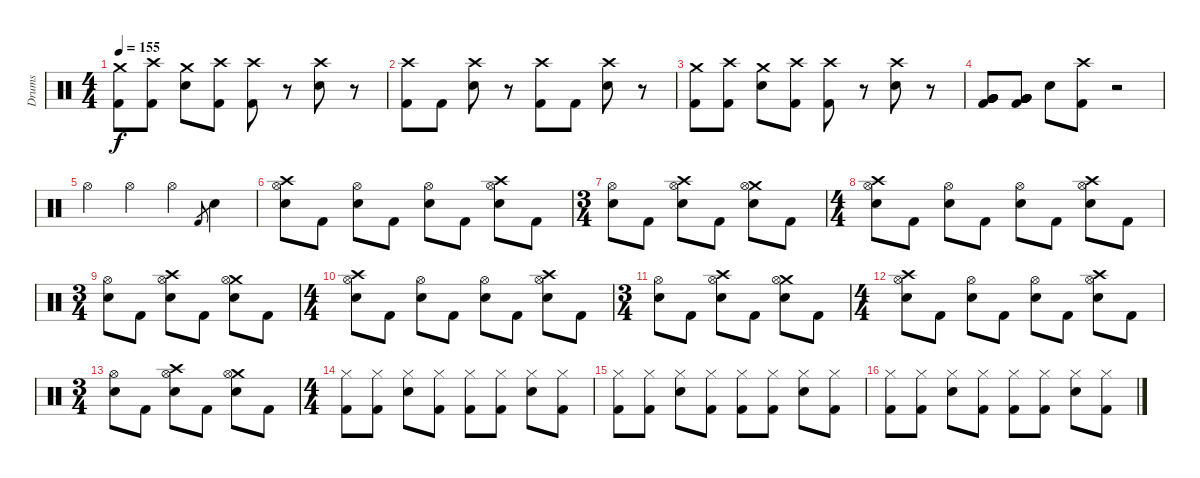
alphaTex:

\track ("Drums" "Drums") {instrument percussion}
\staff {score}
\articulation defaults
\ts (4 4)
\tempo 155
\clef neutral
\ks c
("Crash medium (hit)" "Kick (hit) 2").8{dy f} ("Crash high (hit)" "Kick (hit) 2").8 ("Crash medium (hit)" "Snare (hit) 2").8 ("Crash high (hit)" "Kick (hit) 2").8 ("Crash high (hit)" "Kick (hit) 2").8 r.8 ("Crash high (hit)" "Snare (hit) 2").8 r.8 |
("Crash high (hit)" "Kick (hit) 2").8 "Kick (hit) 2".8 ("Crash high (hit)" "Snare (hit) 2").8 r.8 ("Crash high (hit)" "Kick (hit) 2").8 "Kick (hit) 2".8 ("Crash high (hit)" "Snare (hit) 2").8 r.8 |
("Crash medium (hit)" "Kick (hit) 2").8 ("Crash high (hit)" "Kick (hit) 2").8 ("Crash medium (hit)" "Snare (hit) 2").8 ("Crash high (hit)" "Kick (hit) 2").8 ("Crash high (hit)" "Kick (hit) 2").8 r.8 ("Crash high (hit)" "Snare (hit) 2").8 r.8 |
("Kick (hit) 2" "Very Low Tom (hit)" "Very Low Tom (hit)" "Very Low Tom (hit)" "Very Low Tom (hit)").8 ("Kick (hit) 2" "Very Low Tom (hit)" "Very Low Tom (hit)" "Very Low Tom (hit)" "Very Low Tom (hit)").8 "Snare (hit) 2".8 ("Kick (hit) 2" "Crash high (hit)").8 r.2 |
"Hi-Hat (open)".4 "Hi-Hat (open)".4 "Hi-Hat (open)".4 "Kick (hit) 2".8{gr} "Snare (hit) 2".4 |
("Crash high (hit)" "Hi-Hat (open)" "Snare (hit) 2").8 "Kick (hit) 2".8 ("Hi-Hat (open)" "Snare (hit) 2").8 "Kick (hit) 2".8 ("Hi-Hat (open)" "Snare (hit) 2").8 "Kick (hit) 2".8 ("Crash high (hit)" "Hi-Hat (open)" "Snare (hit) 2").8 "Kick (hit) 2".8 |
\ts (3 4)
("Hi-Hat (open)" "Snare (hit) 2").8 "Kick (hit) 2".8 ("Crash high (hit)" "Hi-Hat (open)" "Snare (hit) 2").8 "Kick (hit) 2".8 ("Crash medium (hit)" "Hi-Hat (open)" "Snare (hit) 2").8 "Kick (hit) 2".8 |
\ts (4 4)
("Crash high (hit)" "Hi-Hat (open)" "Snare (hit) 2").8 "Kick (hit) 2".8 ("Hi-Hat (open)" "Snare (hit) 2").8 "Kick (hit) 2".8 ("Hi-Hat (open)" "Snare (hit) 2").8 "Kick (hit) 2".8 ("Crash high (hit)" "Hi-Hat (open)" "Snare (hit) 2").8 "Kick (hit) 2".8 |
\ts (3 4)
("Hi-Hat (open)" "Snare (hit) 2").8 "Kick (hit) 2".8 ("Crash high (hit)" "Hi-Hat (open)" "Snare (hit) 2").8 "Kick (hit) 2".8 ("Crash medium (hit)" "Hi-Hat (open)" "Snare (hit) 2").8 "Kick (hit) 2".8 |
\ts (4 4)
("Crash high (hit)" "Hi-Hat (open)" "Snare (hit) 2").8 "Kick (hit) 2".8 ("Hi-Hat (open)" "Snare (hit) 2").8 "Kick (hit) 2".8 ("Hi-Hat (open)" "Snare (hit) 2").8 "Kick (hit) 2".8 ("Crash high (hit)" "Hi-Hat (open)" "Snare (hit) 2").8 "Kick (hit) 2".8 |
\ts (3 4)
("Hi-Hat (open)" "Snare (hit) 2").8 "Kick (hit) 2".8 ("Crash high (hit)" "Hi-Hat (open)" "Snare (hit) 2").8 "Kick (hit) 2".8 ("Crash medium (hit)" "Hi-Hat (open)" "Snare (hit) 2").8 "Kick (hit) 2".8 |
\ts (4 4)
("Crash high (hit)" "Hi-Hat (open)" "Snare (hit) 2").8 "Kick (hit) 2".8 ("Hi-Hat (open)" "Snare (hit) 2").8 "Kick (hit) 2".8 ("Hi-Hat (open)" "Snare (hit) 2").8 "Kick (hit) 2".8 ("Crash high (hit)" "Hi-Hat (open)" "Snare (hit) 2").8 "Kick (hit) 2".8 |
\ts (3 4)
("Hi-Hat (open)" "Snare (hit) 2").8 "Kick (hit) 2".8 ("Crash high (hit)" "Hi-Hat (open)" "Snare (hit) 2").8 "Kick (hit) 2".8 ("Crash medium (hit)" "Hi-Hat (open)" "Snare (hit) 2").8 "Kick (hit) 2".8 |
\ts (4 4)
("Hi-Hat (closed)" "Kick (hit) 2").8 ("Hi-Hat (closed)" "Kick (hit) 2").8 ("Hi-Hat (closed)" "Snare (hit) 2").8 ("Hi-Hat (closed)" "Kick (hit) 2").8 ("Hi-Hat (closed)" "Kick (hit) 2").8 ("Hi-Hat (closed)" "Kick (hit) 2").8 ("Hi-Hat (closed)" "Snare (hit) 2").8 ("Hi-Hat (closed)" "Kick (hit) 2").8 |
("Hi-Hat (closed)" "Kick (hit) 2").8 ("Hi-Hat (closed)" "Kick (hit) 2").8 ("Hi-Hat (closed)" "Snare (hit) 2").8 ("Hi-Hat (closed)" "Kick (hit) 2").8 ("Hi-Hat (closed)" "Kick (hit) 2").8 ("Hi-Hat (closed)" "Kick (hit) 2").8 ("Hi-Hat (closed)" "Snare (hit) 2").8 ("Hi-Hat (closed)" "Kick (hit) 2").8 |
("Hi-Hat (closed)" "Kick (hit) 2").8 ("Hi-Hat (closed)" "Kick (hit) 2").8 ("Hi-Hat (closed)" "Snare (hit) 2").8 ("Hi-Hat (closed)" "Kick (hit) 2").8 ("Hi-Hat (closed)" "Kick (hit) 2").8 ("Hi-Hat (closed)" "Kick (hit) 2").8 ("Hi-Hat (closed)" "Snare (hit) 2").8 ("Hi-Hat (closed)" "Kick (hit) 2").8
